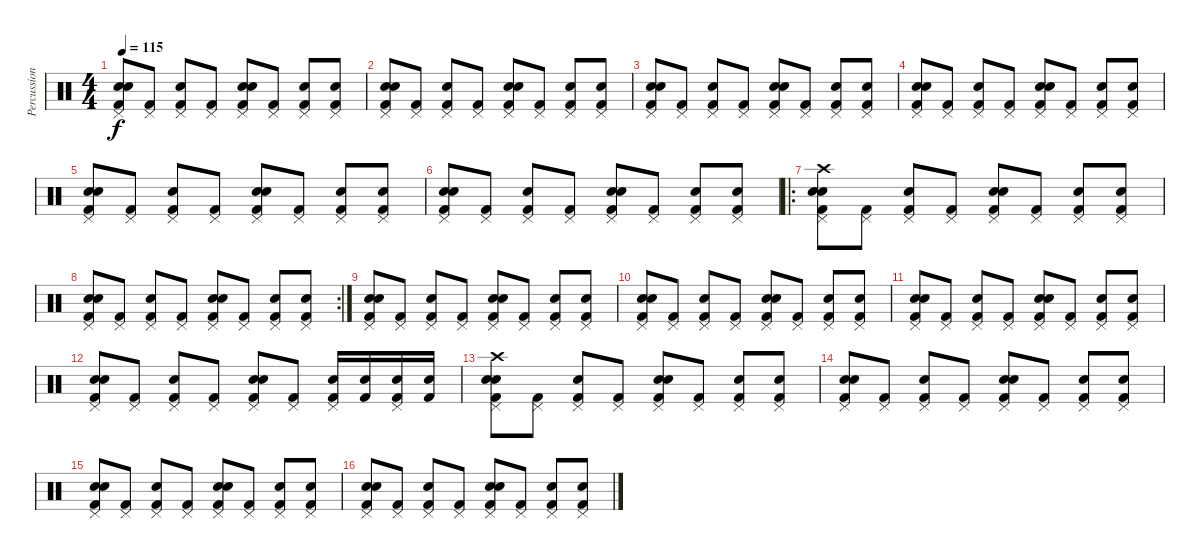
\track ("Percussions" "Percussion") {instrument percussion}
\staff {score}
\articulation defaults
\ts (4 4)
\tempo 115
\clef neutral
\ks c
("Hand Clap (hit)" "Pedal Hi-Hat (hit)" "Snare (hit) 2" "Kick (hit) 2").8{dy f} ("Pedal Hi-Hat (hit)" "Kick (hit) 2").8 ("Pedal Hi-Hat (hit)" "Snare (hit) 2" "Kick (hit) 2").8 ("Pedal Hi-Hat (hit)" "Kick (hit) 2").8 ("Hand Clap (hit)" "Pedal Hi-Hat (hit)" "Snare (hit) 2" "Kick (hit) 2").8 ("Pedal Hi-Hat (hit)" "Kick (hit) 2").8 ("Pedal Hi-Hat (hit)" "Snare (hit) 2" "Kick (hit) 2").8 ("Pedal Hi-Hat (hit)" "Snare (hit) 2" "Kick (hit) 2").8 |
("Hand Clap (hit)" "Pedal Hi-Hat (hit)" "Snare (hit) 2" "Kick (hit) 2").8 ("Pedal Hi-Hat (hit)" "Kick (hit) 2").8 ("Pedal Hi-Hat (hit)" "Snare (hit) 2" "Kick (hit) 2").8 ("Pedal Hi-Hat (hit)" "Kick (hit) 2").8 ("Hand Clap (hit)" "Pedal Hi-Hat (hit)" "Snare (hit) 2" "Kick (hit) 2").8 ("Pedal Hi-Hat (hit)" "Kick (hit) 2").8 ("Pedal Hi-Hat (hit)" "Snare (hit) 2" "Kick (hit) 2").8 ("Pedal Hi-Hat (hit)" "Snare (hit) 2" "Kick (hit) 2").8 |
("Hand Clap (hit)" "Pedal Hi-Hat (hit)" "Snare (hit) 2" "Kick (hit) 2").8 ("Pedal Hi-Hat (hit)" "Kick (hit) 2").8 ("Pedal Hi-Hat (hit)" "Snare (hit) 2" "Kick (hit) 2").8 ("Pedal Hi-Hat (hit)" "Kick (hit) 2").8 ("Hand Clap (hit)" "Pedal Hi-Hat (hit)" "Snare (hit) 2" "Kick (hit) 2").8 ("Pedal Hi-Hat (hit)" "Kick (hit) 2").8 ("Pedal Hi-Hat (hit)" "Snare (hit) 2" "Kick (hit) 2").8 ("Pedal Hi-Hat (hit)" "Snare (hit) 2" "Kick (hit) 2").8 |
("Hand Clap (hit)" "Pedal Hi-Hat (hit)" "Snare (hit) 2" "Kick (hit) 2").8 ("Pedal Hi-Hat (hit)" "Kick (hit) 2").8 ("Pedal Hi-Hat (hit)" "Snare (hit) 2" "Kick (hit) 2").8 ("Pedal Hi-Hat (hit)" "Kick (hit) 2").8 ("Hand Clap (hit)" "Pedal Hi-Hat (hit)" "Snare (hit) 2" "Kick (hit) 2").8 ("Pedal Hi-Hat (hit)" "Kick (hit) 2").8 ("Pedal Hi-Hat (hit)" "Snare (hit) 2" "Kick (hit) 2").8 ("Pedal Hi-Hat (hit)" "Snare (hit) 2" "Kick (hit) 2").8 |
("Hand Clap (hit)" "Pedal Hi-Hat (hit)" "Snare (hit) 2" "Kick (hit) 2").8 ("Pedal Hi-Hat (hit)" "Kick (hit) 2").8 ("Pedal Hi-Hat (hit)" "Snare (hit) 2" "Kick (hit) 2").8 ("Pedal Hi-Hat (hit)" "Kick (hit) 2").8 ("Hand Clap (hit)" "Pedal Hi-Hat (hit)" "Snare (hit) 2" "Kick (hit) 2").8 ("Pedal Hi-Hat (hit)" "Kick (hit) 2").8 ("Pedal Hi-Hat (hit)" "Snare (hit) 2" "Kick (hit) 2").8 ("Pedal Hi-Hat (hit)" "Snare (hit) 2" "Kick (hit) 2").8 |
("Hand Clap (hit)" "Pedal Hi-Hat (hit)" "Snare (hit) 2" "Kick (hit) 2").8 ("Pedal Hi-Hat (hit)" "Kick (hit) 2").8 ("Pedal Hi-Hat (hit)" "Snare (hit) 2" "Kick (hit) 2").8 ("Pedal Hi-Hat (hit)" "Kick (hit) 2").8 ("Hand Clap (hit)" "Pedal Hi-Hat (hit)" "Snare (hit) 2" "Kick (hit) 2").8 ("Pedal Hi-Hat (hit)" "Kick (hit) 2").8 ("Pedal Hi-Hat (hit)" "Snare (hit) 2" "Kick (hit) 2").8 ("Pedal Hi-Hat (hit)" "Snare (hit) 2" "Kick (hit) 2").8 |
\ro
("Crash high (hit)" "Hand Clap (hit)" "Pedal Hi-Hat (hit)" "Snare (hit) 2" "Kick (hit) 2").8 ("Pedal Hi-Hat (hit)" "Kick (hit) 2").8 ("Pedal Hi-Hat (hit)" "Snare (hit) 2" "Kick (hit) 2").8 ("Pedal Hi-Hat (hit)" "Kick (hit) 2").8 ("Hand Clap (hit)" "Pedal Hi-Hat (hit)" "Snare (hit) 2" "Kick (hit) 2").8 ("Pedal Hi-Hat (hit)" "Kick (hit) 2").8 ("Pedal Hi-Hat (hit)" "Snare (hit) 2" "Kick (hit) 2").8 ("Pedal Hi-Hat (hit)" "Snare (hit) 2" "Kick (hit) 2").8 |
\rc 2
("Hand Clap (hit)" "Pedal Hi-Hat (hit)" "Snare (hit) 2" "Kick (hit) 2").8 ("Pedal Hi-Hat (hit)" "Kick (hit) 2").8 ("Pedal Hi-Hat (hit)" "Snare (hit) 2" "Kick (hit) 2").8 ("Pedal Hi-Hat (hit)" "Kick (hit) 2").8 ("Hand Clap (hit)" "Pedal Hi-Hat (hit)" "Snare (hit) 2" "Kick (hit) 2").8 ("Pedal Hi-Hat (hit)" "Kick (hit) 2").8 ("Pedal Hi-Hat (hit)" "Snare (hit) 2" "Kick (hit) 2").8 ("Pedal Hi-Hat (hit)" "Snare (hit) 2" "Kick (hit) 2").8 |
("Hand Clap (hit)" "Pedal Hi-Hat (hit)" "Snare (hit) 2" "Kick (hit) 2").8 ("Pedal Hi-Hat (hit)" "Kick (hit) 2").8 ("Pedal Hi-Hat (hit)" "Snare (hit) 2" "Kick (hit) 2").8 ("Pedal Hi-Hat (hit)" "Kick (hit) 2").8 ("Hand Clap (hit)" "Pedal Hi-Hat (hit)" "Snare (hit) 2" "Kick (hit) 2").8 ("Pedal Hi-Hat (hit)" "Kick (hit) 2").8 ("Pedal Hi-Hat (hit)" "Snare (hit) 2" "Kick (hit) 2").8 ("Pedal Hi-Hat (hit)" "Snare (hit) 2" "Kick (hit) 2").8 |
("Hand Clap (hit)" "Pedal Hi-Hat (hit)" "Snare (hit) 2" "Kick (hit) 2").8 ("Pedal Hi-Hat (hit)" "Kick (hit) 2").8 ("Pedal Hi-Hat (hit)" "Snare (hit) 2" "Kick (hit) 2").8 ("Pedal Hi-Hat (hit)" "Kick (hit) 2").8 ("Hand Clap (hit)" "Pedal Hi-Hat (hit)" "Snare (hit) 2" "Kick (hit) 2").8 ("Pedal Hi-Hat (hit)" "Kick (hit) 2").8 ("Pedal Hi-Hat (hit)" "Snare (hit) 2" "Kick (hit) 2").8 ("Pedal Hi-Hat (hit)" "Snare (hit) 2" "Kick (hit) 2").8 |
("Hand Clap (hit)" "Pedal Hi-Hat (hit)" "Snare (hit) 2" "Kick (hit) 2").8 ("Pedal Hi-Hat (hit)" "Kick (hit) 2").8 ("Pedal Hi-Hat (hit)" "Snare (hit) 2" "Kick (hit) 2").8 ("Pedal Hi-Hat (hit)" "Kick (hit) 2").8 ("Hand Clap (hit)" "Pedal Hi-Hat (hit)" "Snare (hit) 2" "Kick (hit) 2").8 ("Pedal Hi-Hat (hit)" "Kick (hit) 2").8 ("Pedal Hi-Hat (hit)" "Snare (hit) 2" "Kick (hit) 2").8 ("Pedal Hi-Hat (hit)" "Snare (hit) 2" "Kick (hit) 2").8 |
("Hand Clap (hit)" "Pedal Hi-Hat (hit)" "Snare (hit) 2" "Kick (hit) 2").8 ("Pedal Hi-Hat (hit)" "Kick (hit) 2").8 ("Pedal Hi-Hat (hit)" "Snare (hit) 2" "Kick (hit) 2").8 ("Pedal Hi-Hat (hit)" "Kick (hit) 2").8 ("Hand Clap (hit)" "Pedal Hi-Hat (hit)" "Snare (hit) 2" "Kick (hit) 2").8 ("Pedal Hi-Hat (hit)" "Kick (hit) 2").8 ("Pedal Hi-Hat (hit)" "Snare (hit) 2" "Kick (hit) 2").16 ("Snare (hit) 2" "Kick (hit) 2").16 ("Pedal Hi-Hat (hit)" "Snare (hit) 2" "Kick (hit) 2").16 ("Snare (hit) 2" "Kick (hit) 2").16 |
("Crash high (hit)" "Hand Clap (hit)" "Pedal Hi-Hat (hit)" "Snare (hit) 2" "Kick (hit) 2").8 ("Pedal Hi-Hat (hit)" "Kick (hit) 2").8 ("Pedal Hi-Hat (hit)" "Snare (hit) 2" "Kick (hit) 2").8 ("Pedal Hi-Hat (hit)" "Kick (hit) 2").8 ("Hand Clap (hit)" "Pedal Hi-Hat (hit)" "Snare (hit) 2" "Kick (hit) 2").8 ("Pedal Hi-Hat (hit)" "Kick (hit) 2").8 ("Pedal Hi-Hat (hit)" "Snare (hit) 2" "Kick (hit) 2").8 ("Pedal Hi-Hat (hit)" "Snare (hit) 2" "Kick (hit) 2").8 |
("Hand Clap (hit)" "Pedal Hi-Hat (hit)" "Snare (hit) 2" "Kick (hit) 2").8 ("Pedal Hi-Hat (hit)" "Kick (hit) 2").8 ("Pedal Hi-Hat (hit)" "Snare (hit) 2" "Kick (hit) 2").8 ("Pedal Hi-Hat (hit)" "Kick (hit) 2").8 ("Hand Clap (hit)" "Pedal Hi-Hat (hit)" "Snare (hit) 2" "Kick (hit) 2").8 ("Pedal Hi-Hat (hit)" "Kick (hit) 2").8 ("Pedal Hi-Hat (hit)" "Snare (hit) 2" "Kick (hit) 2").8 ("Pedal Hi-Hat (hit)" "Snare (hit) 2" "Kick (hit) 2").8 |
("Hand Clap (hit)" "Pedal Hi-Hat (hit)" "Snare (hit) 2" "Kick (hit) 2").8 ("Pedal Hi-Hat (hit)" "Kick (hit) 2").8 ("Pedal Hi-Hat (hit)" "Snare (hit) 2" "Kick (hit) 2").8 ("Pedal Hi-Hat (hit)" "Kick (hit) 2").8 ("Hand Clap (hit)" "Pedal Hi-Hat (hit)" "Snare (hit) 2" "Kick (hit) 2").8 ("Pedal Hi-Hat (hit)" "Kick (hit) 2").8 ("Pedal Hi-Hat (hit)" "Snare (hit) 2" "Kick (hit) 2").8 ("Pedal Hi-Hat (hit)" "Snare (hit) 2" "Kick (hit) 2").8 |
("Hand Clap (hit)" "Pedal Hi-Hat (hit)" "Snare (hit) 2" "Kick (hit) 2").8 ("Pedal Hi-Hat (hit)" "Kick (hit) 2").8 ("Pedal Hi-Hat (hit)" "Snare (hit) 2" "Kick (hit) 2").8 ("Pedal Hi-Hat (hit)" "Kick (hit) 2").8 ("Hand Clap (hit)" "Pedal Hi-Hat (hit)" "Snare (hit) 2" "Kick (hit) 2").8 ("Pedal Hi-Hat (hit)" "Kick (hit) 2").8 ("Pedal Hi-Hat (hit)" "Snare (hit) 2" "Kick (hit) 2").8 ("Pedal Hi-Hat (hit)" "Snare (hit) 2" "Kick (hit) 2").8
